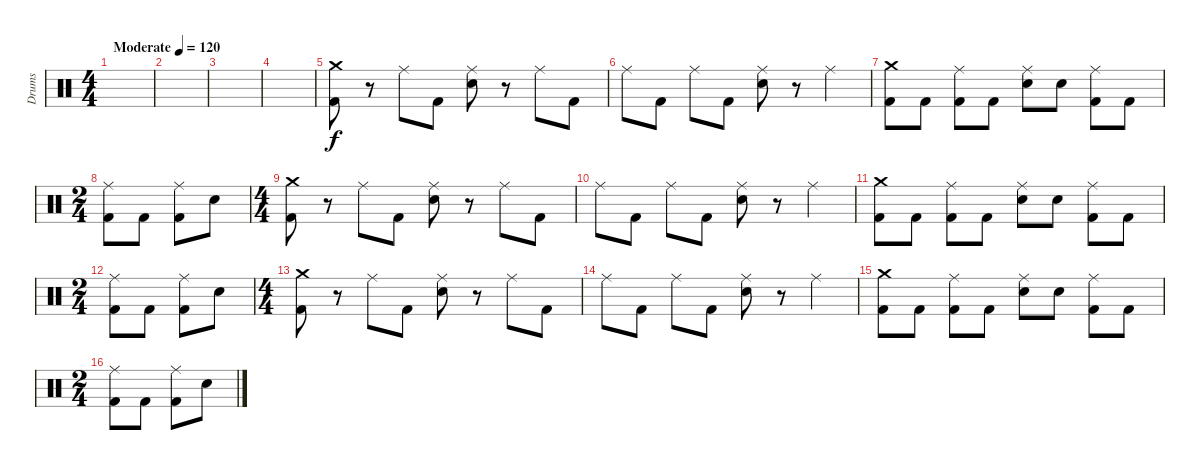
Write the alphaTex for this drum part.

\track ("Drums" "Drums") {instrument percussion}
\staff {score}
\articulation defaults
\ts (4 4)
\tempo (120 "Moderate")
\clef neutral
\ks c
|
|
|
|
("Crash medium (hit)" "Kick (hit) 2").8 r.8 "Ride (middle)".8 "Kick (hit) 2".8 ("Ride (middle)" "Electric Snare (hit)").8 r.8 "Ride (middle)".8 "Kick (hit) 2".8 |
"Ride (middle)".8 "Kick (hit) 2".8 "Ride (middle)".8 "Kick (hit) 2".8 ("Ride (middle)" "Electric Snare (hit)").8 r.8 "Ride (middle)".4 |
("Crash medium (hit)" "Kick (hit) 2").8 "Kick (hit) 2".8 ("Ride (middle)" "Kick (hit) 2").8 "Kick (hit) 2".8 ("Ride (middle)" "Electric Snare (hit)").8 "Electric Snare (hit)".8 ("Ride (middle)" "Kick (hit) 2").8 "Kick (hit) 2".8 |
\ts (2 4)
("Ride (middle)" "Kick (hit) 2").8 "Kick (hit) 2".8 ("Ride (middle)" "Kick (hit) 2").8 "Electric Snare (hit)".8 |
\ts (4 4)
("Crash medium (hit)" "Kick (hit) 2").8 r.8 "Ride (middle)".8 "Kick (hit) 2".8 ("Ride (middle)" "Electric Snare (hit)").8 r.8 "Ride (middle)".8 "Kick (hit) 2".8 |
"Ride (middle)".8 "Kick (hit) 2".8 "Ride (middle)".8 "Kick (hit) 2".8 ("Ride (middle)" "Electric Snare (hit)").8 r.8 "Ride (middle)".4 |
("Crash medium (hit)" "Kick (hit) 2").8 "Kick (hit) 2".8 ("Ride (middle)" "Kick (hit) 2").8 "Kick (hit) 2".8 ("Ride (middle)" "Electric Snare (hit)").8 "Electric Snare (hit)".8 ("Ride (middle)" "Kick (hit) 2").8 "Kick (hit) 2".8 |
\ts (2 4)
("Ride (middle)" "Kick (hit) 2").8 "Kick (hit) 2".8 ("Ride (middle)" "Kick (hit) 2").8 "Electric Snare (hit)".8 |
\ts (4 4)
("Crash medium (hit)" "Kick (hit) 2").8 r.8 "Ride (middle)".8 "Kick (hit) 2".8 ("Ride (middle)" "Electric Snare (hit)").8 r.8 "Ride (middle)".8 "Kick (hit) 2".8 |
"Ride (middle)".8 "Kick (hit) 2".8 "Ride (middle)".8 "Kick (hit) 2".8 ("Ride (middle)" "Electric Snare (hit)").8 r.8 "Ride (middle)".4 |
("Crash medium (hit)" "Kick (hit) 2").8 "Kick (hit) 2".8 ("Ride (middle)" "Kick (hit) 2").8 "Kick (hit) 2".8 ("Ride (middle)" "Electric Snare (hit)").8 "Electric Snare (hit)".8 ("Ride (middle)" "Kick (hit) 2").8 "Kick (hit) 2".8 |
\ts (2 4)
("Ride (middle)" "Kick (hit) 2").8 "Kick (hit) 2".8 ("Ride (middle)" "Kick (hit) 2").8 "Electric Snare (hit)".8
